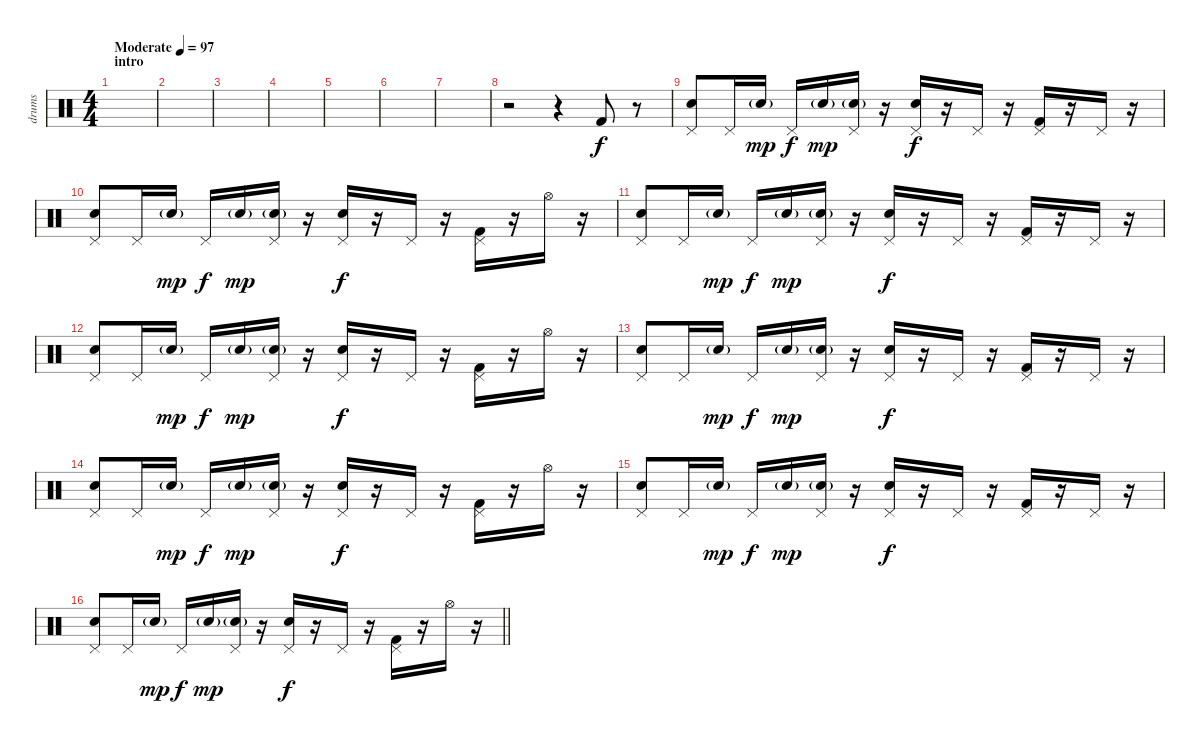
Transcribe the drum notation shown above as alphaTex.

\track ("drums" "drums") {instrument percussion}
\staff {score}
\articulation defaults
\ts (4 4)
\section ("" "intro")
\tempo (97 "Moderate")
\clef neutral
\ks c
|
|
|
|
|
|
|
r.2 r.4 "Kick (hit) 2".8 r.8 |
("Electric Snare (hit)" "Pedal Hi-Hat (hit)").8 "Pedal Hi-Hat (hit)".16 "Electric Snare (hit)"{g}.16{dy mp} "Pedal Hi-Hat (hit)".16{dy f} "Electric Snare (hit)"{g}.16{dy mp} ("Electric Snare (hit)"{g} "Pedal Hi-Hat (hit)").16 r.16 ("Electric Snare (hit)" "Pedal Hi-Hat (hit)").16{dy f} r.16 "Pedal Hi-Hat (hit)".16 r.16 ("Kick (hit) 2" "Pedal Hi-Hat (hit)").16 r.16 "Pedal Hi-Hat (hit)".16 r.16 |
("Electric Snare (hit)" "Pedal Hi-Hat (hit)").8 "Pedal Hi-Hat (hit)".16 "Electric Snare (hit)"{g}.16{dy mp} "Pedal Hi-Hat (hit)".16{dy f} "Electric Snare (hit)"{g}.16{dy mp} ("Electric Snare (hit)"{g} "Pedal Hi-Hat (hit)").16 r.16 ("Electric Snare (hit)" "Pedal Hi-Hat (hit)").16{dy f} r.16 "Pedal Hi-Hat (hit)".16 r.16 ("Kick (hit) 2" "Pedal Hi-Hat (hit)").16 r.16 "Hi-Hat (open)".16 r.16 |
("Electric Snare (hit)" "Pedal Hi-Hat (hit)").8 "Pedal Hi-Hat (hit)".16 "Electric Snare (hit)"{g}.16{dy mp} "Pedal Hi-Hat (hit)".16{dy f} "Electric Snare (hit)"{g}.16{dy mp} ("Electric Snare (hit)"{g} "Pedal Hi-Hat (hit)").16 r.16 ("Electric Snare (hit)" "Pedal Hi-Hat (hit)").16{dy f} r.16 "Pedal Hi-Hat (hit)".16 r.16 ("Kick (hit) 2" "Pedal Hi-Hat (hit)").16 r.16 "Pedal Hi-Hat (hit)".16 r.16 |
("Electric Snare (hit)" "Pedal Hi-Hat (hit)").8 "Pedal Hi-Hat (hit)".16 "Electric Snare (hit)"{g}.16{dy mp} "Pedal Hi-Hat (hit)".16{dy f} "Electric Snare (hit)"{g}.16{dy mp} ("Electric Snare (hit)"{g} "Pedal Hi-Hat (hit)").16 r.16 ("Electric Snare (hit)" "Pedal Hi-Hat (hit)").16{dy f} r.16 "Pedal Hi-Hat (hit)".16 r.16 ("Kick (hit) 2" "Pedal Hi-Hat (hit)").16 r.16 "Hi-Hat (open)".16 r.16 |
("Electric Snare (hit)" "Pedal Hi-Hat (hit)").8 "Pedal Hi-Hat (hit)".16 "Electric Snare (hit)"{g}.16{dy mp} "Pedal Hi-Hat (hit)".16{dy f} "Electric Snare (hit)"{g}.16{dy mp} ("Electric Snare (hit)"{g} "Pedal Hi-Hat (hit)").16 r.16 ("Electric Snare (hit)" "Pedal Hi-Hat (hit)").16{dy f} r.16 "Pedal Hi-Hat (hit)".16 r.16 ("Kick (hit) 2" "Pedal Hi-Hat (hit)").16 r.16 "Pedal Hi-Hat (hit)".16 r.16 |
("Electric Snare (hit)" "Pedal Hi-Hat (hit)").8 "Pedal Hi-Hat (hit)".16 "Electric Snare (hit)"{g}.16{dy mp} "Pedal Hi-Hat (hit)".16{dy f} "Electric Snare (hit)"{g}.16{dy mp} ("Electric Snare (hit)"{g} "Pedal Hi-Hat (hit)").16 r.16 ("Electric Snare (hit)" "Pedal Hi-Hat (hit)").16{dy f} r.16 "Pedal Hi-Hat (hit)".16 r.16 ("Kick (hit) 2" "Pedal Hi-Hat (hit)").16 r.16 "Hi-Hat (open)".16 r.16 |
("Electric Snare (hit)" "Pedal Hi-Hat (hit)").8 "Pedal Hi-Hat (hit)".16 "Electric Snare (hit)"{g}.16{dy mp} "Pedal Hi-Hat (hit)".16{dy f} "Electric Snare (hit)"{g}.16{dy mp} ("Electric Snare (hit)"{g} "Pedal Hi-Hat (hit)").16 r.16 ("Electric Snare (hit)" "Pedal Hi-Hat (hit)").16{dy f} r.16 "Pedal Hi-Hat (hit)".16 r.16 ("Kick (hit) 2" "Pedal Hi-Hat (hit)").16 r.16 "Pedal Hi-Hat (hit)".16 r.16 |
\barLineRight lightlight
("Electric Snare (hit)" "Pedal Hi-Hat (hit)").8 "Pedal Hi-Hat (hit)".16 "Electric Snare (hit)"{g}.16{dy mp} "Pedal Hi-Hat (hit)".16{dy f} "Electric Snare (hit)"{g}.16{dy mp} ("Electric Snare (hit)"{g} "Pedal Hi-Hat (hit)").16 r.16 ("Electric Snare (hit)" "Pedal Hi-Hat (hit)").16{dy f} r.16 "Pedal Hi-Hat (hit)".16 r.16 ("Kick (hit) 2" "Pedal Hi-Hat (hit)").16 r.16 "Hi-Hat (open)".16 r.16
